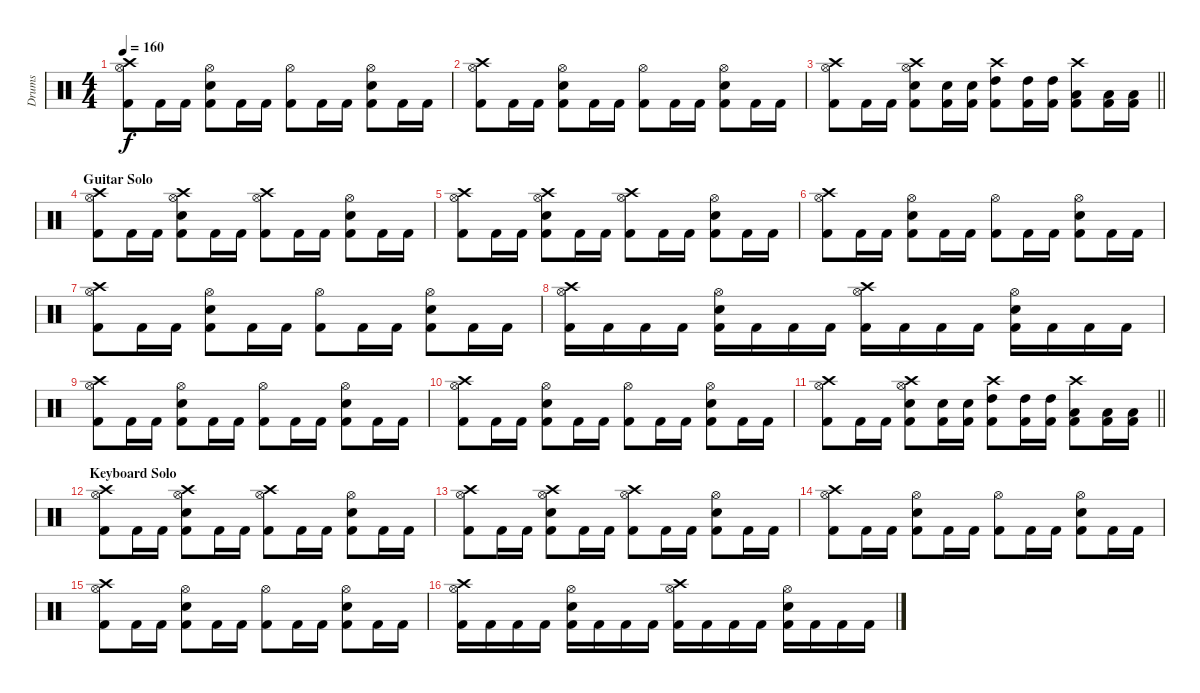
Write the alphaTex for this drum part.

\track ("Drums" "Drums") {instrument percussion}
\staff {score}
\articulation defaults
\ts (4 4)
\tempo 160
\clef neutral
\ks c
("Crash high (hit)" "Hi-Hat (open)" "Kick (hit) 2").8{dy f} "Kick (hit) 2".16 "Kick (hit) 2".16 ("Hi-Hat (open)" "Snare (hit) 2" "Kick (hit) 2").8 "Kick (hit) 2".16 "Kick (hit) 2".16 ("Hi-Hat (open)" "Kick (hit) 2").8 "Kick (hit) 2".16 "Kick (hit) 2".16 ("Hi-Hat (open)" "Snare (hit) 2" "Kick (hit) 2").8 "Kick (hit) 2".16 "Kick (hit) 2".16 |
("Crash high (hit)" "Hi-Hat (open)" "Kick (hit) 2").8 "Kick (hit) 2".16 "Kick (hit) 2".16 ("Hi-Hat (open)" "Snare (hit) 2" "Kick (hit) 2").8 "Kick (hit) 2".16 "Kick (hit) 2".16 ("Hi-Hat (open)" "Kick (hit) 2").8 "Kick (hit) 2".16 "Kick (hit) 2".16 ("Hi-Hat (open)" "Snare (hit) 2" "Kick (hit) 2").8 "Kick (hit) 2".16 "Kick (hit) 2".16 |
\barLineRight lightlight
("Crash high (hit)" "Hi-Hat (open)" "Kick (hit) 2").8 "Kick (hit) 2".16 "Kick (hit) 2".16 ("Crash high (hit)" "Hi-Hat (open)" "Snare (hit) 2" "Kick (hit) 2").8 ("Snare (hit) 2" "Kick (hit) 2").16 ("Snare (hit) 2" "Kick (hit) 2").16 ("Crash high (hit)" "High Tom (hit)" "Kick (hit) 2").8 ("High Tom (hit)" "Kick (hit) 2").16 ("High Tom (hit)" "Kick (hit) 2").16 ("Crash high (hit)" "Low Tom (hit)" "Kick (hit) 2").8 ("Low Tom (hit)" "Kick (hit) 2").16 ("Low Tom (hit)" "Kick (hit) 2").16 |
\section ("" "Guitar Solo")
("Crash high (hit)" "Hi-Hat (open)" "Kick (hit) 2").8 "Kick (hit) 2".16 "Kick (hit) 2".16 ("Crash high (hit)" "Hi-Hat (open)" "Snare (hit) 2" "Kick (hit) 2").8 "Kick (hit) 2".16 "Kick (hit) 2".16 ("Crash high (hit)" "Hi-Hat (open)" "Kick (hit) 2").8 "Kick (hit) 2".16 "Kick (hit) 2".16 ("Hi-Hat (open)" "Snare (hit) 2" "Kick (hit) 2").8 "Kick (hit) 2".16 "Kick (hit) 2".16 |
("Crash high (hit)" "Hi-Hat (open)" "Kick (hit) 2").8 "Kick (hit) 2".16 "Kick (hit) 2".16 ("Crash high (hit)" "Hi-Hat (open)" "Snare (hit) 2" "Kick (hit) 2").8 "Kick (hit) 2".16 "Kick (hit) 2".16 ("Crash high (hit)" "Hi-Hat (open)" "Kick (hit) 2").8 "Kick (hit) 2".16 "Kick (hit) 2".16 ("Hi-Hat (open)" "Snare (hit) 2" "Kick (hit) 2").8 "Kick (hit) 2".16 "Kick (hit) 2".16 |
("Crash high (hit)" "Hi-Hat (open)" "Kick (hit) 2").8 "Kick (hit) 2".16 "Kick (hit) 2".16 ("Hi-Hat (open)" "Snare (hit) 2" "Kick (hit) 2").8 "Kick (hit) 2".16 "Kick (hit) 2".16 ("Hi-Hat (open)" "Kick (hit) 2").8 "Kick (hit) 2".16 "Kick (hit) 2".16 ("Hi-Hat (open)" "Snare (hit) 2" "Kick (hit) 2").8 "Kick (hit) 2".16 "Kick (hit) 2".16 |
("Crash high (hit)" "Hi-Hat (open)" "Kick (hit) 2").8 "Kick (hit) 2".16 "Kick (hit) 2".16 ("Hi-Hat (open)" "Snare (hit) 2" "Kick (hit) 2").8 "Kick (hit) 2".16 "Kick (hit) 2".16 ("Hi-Hat (open)" "Kick (hit) 2").8 "Kick (hit) 2".16 "Kick (hit) 2".16 ("Hi-Hat (open)" "Snare (hit) 2" "Kick (hit) 2").8 "Kick (hit) 2".16 "Kick (hit) 2".16 |
("Crash high (hit)" "Hi-Hat (open)" "Kick (hit) 2").16 "Kick (hit) 2".16 "Kick (hit) 2".16 "Kick (hit) 2".16 ("Hi-Hat (open)" "Snare (hit) 2" "Kick (hit) 2").16 "Kick (hit) 2".16 "Kick (hit) 2".16 "Kick (hit) 2".16 ("Crash high (hit)" "Hi-Hat (open)" "Kick (hit) 2").16 "Kick (hit) 2".16 "Kick (hit) 2".16 "Kick (hit) 2".16 ("Hi-Hat (open)" "Snare (hit) 2" "Kick (hit) 2").16 "Kick (hit) 2".16 "Kick (hit) 2".16 "Kick (hit) 2".16 |
("Crash high (hit)" "Hi-Hat (open)" "Kick (hit) 2").8 "Kick (hit) 2".16 "Kick (hit) 2".16 ("Hi-Hat (open)" "Snare (hit) 2" "Kick (hit) 2").8 "Kick (hit) 2".16 "Kick (hit) 2".16 ("Hi-Hat (open)" "Kick (hit) 2").8 "Kick (hit) 2".16 "Kick (hit) 2".16 ("Hi-Hat (open)" "Snare (hit) 2" "Kick (hit) 2").8 "Kick (hit) 2".16 "Kick (hit) 2".16 |
("Crash high (hit)" "Hi-Hat (open)" "Kick (hit) 2").8 "Kick (hit) 2".16 "Kick (hit) 2".16 ("Hi-Hat (open)" "Snare (hit) 2" "Kick (hit) 2").8 "Kick (hit) 2".16 "Kick (hit) 2".16 ("Hi-Hat (open)" "Kick (hit) 2").8 "Kick (hit) 2".16 "Kick (hit) 2".16 ("Hi-Hat (open)" "Snare (hit) 2" "Kick (hit) 2").8 "Kick (hit) 2".16 "Kick (hit) 2".16 |
\barLineRight lightlight
("Crash high (hit)" "Hi-Hat (open)" "Kick (hit) 2").8 "Kick (hit) 2".16 "Kick (hit) 2".16 ("Crash high (hit)" "Hi-Hat (open)" "Snare (hit) 2" "Kick (hit) 2").8 ("Snare (hit) 2" "Kick (hit) 2").16 ("Snare (hit) 2" "Kick (hit) 2").16 ("Crash high (hit)" "High Tom (hit)" "Kick (hit) 2").8 ("High Tom (hit)" "Kick (hit) 2").16 ("High Tom (hit)" "Kick (hit) 2").16 ("Crash high (hit)" "Low Tom (hit)" "Kick (hit) 2").8 ("Low Tom (hit)" "Kick (hit) 2").16 ("Low Tom (hit)" "Kick (hit) 2").16 |
\section ("" "Keyboard Solo")
("Crash high (hit)" "Hi-Hat (open)" "Kick (hit) 2").8 "Kick (hit) 2".16 "Kick (hit) 2".16 ("Crash high (hit)" "Hi-Hat (open)" "Snare (hit) 2" "Kick (hit) 2").8 "Kick (hit) 2".16 "Kick (hit) 2".16 ("Crash high (hit)" "Hi-Hat (open)" "Kick (hit) 2").8 "Kick (hit) 2".16 "Kick (hit) 2".16 ("Hi-Hat (open)" "Snare (hit) 2" "Kick (hit) 2").8 "Kick (hit) 2".16 "Kick (hit) 2".16 |
("Crash high (hit)" "Hi-Hat (open)" "Kick (hit) 2").8 "Kick (hit) 2".16 "Kick (hit) 2".16 ("Crash high (hit)" "Hi-Hat (open)" "Snare (hit) 2" "Kick (hit) 2").8 "Kick (hit) 2".16 "Kick (hit) 2".16 ("Crash high (hit)" "Hi-Hat (open)" "Kick (hit) 2").8 "Kick (hit) 2".16 "Kick (hit) 2".16 ("Hi-Hat (open)" "Snare (hit) 2" "Kick (hit) 2").8 "Kick (hit) 2".16 "Kick (hit) 2".16 |
("Crash high (hit)" "Hi-Hat (open)" "Kick (hit) 2").8 "Kick (hit) 2".16 "Kick (hit) 2".16 ("Hi-Hat (open)" "Snare (hit) 2" "Kick (hit) 2").8 "Kick (hit) 2".16 "Kick (hit) 2".16 ("Hi-Hat (open)" "Kick (hit) 2").8 "Kick (hit) 2".16 "Kick (hit) 2".16 ("Hi-Hat (open)" "Snare (hit) 2" "Kick (hit) 2").8 "Kick (hit) 2".16 "Kick (hit) 2".16 |
("Crash high (hit)" "Hi-Hat (open)" "Kick (hit) 2").8 "Kick (hit) 2".16 "Kick (hit) 2".16 ("Hi-Hat (open)" "Snare (hit) 2" "Kick (hit) 2").8 "Kick (hit) 2".16 "Kick (hit) 2".16 ("Hi-Hat (open)" "Kick (hit) 2").8 "Kick (hit) 2".16 "Kick (hit) 2".16 ("Hi-Hat (open)" "Snare (hit) 2" "Kick (hit) 2").8 "Kick (hit) 2".16 "Kick (hit) 2".16 |
("Crash high (hit)" "Hi-Hat (open)" "Kick (hit) 2").16 "Kick (hit) 2".16 "Kick (hit) 2".16 "Kick (hit) 2".16 ("Hi-Hat (open)" "Snare (hit) 2" "Kick (hit) 2").16 "Kick (hit) 2".16 "Kick (hit) 2".16 "Kick (hit) 2".16 ("Crash high (hit)" "Hi-Hat (open)" "Kick (hit) 2").16 "Kick (hit) 2".16 "Kick (hit) 2".16 "Kick (hit) 2".16 ("Hi-Hat (open)" "Snare (hit) 2" "Kick (hit) 2").16 "Kick (hit) 2".16 "Kick (hit) 2".16 "Kick (hit) 2".16
